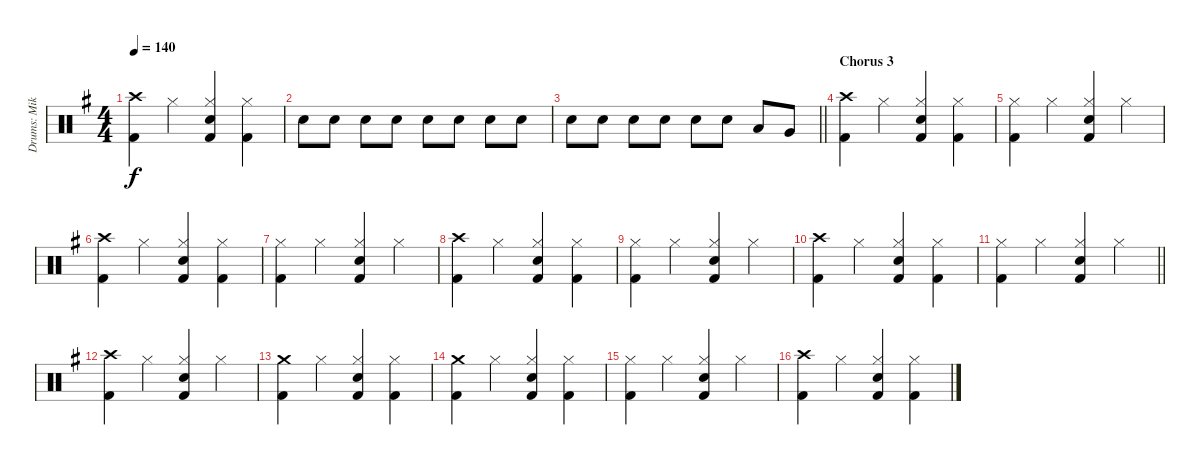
\track ("Drums: Mike Terrana" "Drums: Mik") {instrument percussion}
\staff {score}
\articulation defaults
\ts (4 4)
\tempo 140
\clef neutral
\ks eminor
("Crash high (hit)" "Kick (hit) 2").4{dy f} "Hi-Hat (closed)".4 ("Hi-Hat (closed)" "Electric Snare (hit)" "Kick (hit) 2").4 ("Hi-Hat (closed)" "Kick (hit) 2").4 |
"Electric Snare (hit)".8 "Electric Snare (hit)".8 "Electric Snare (hit)".8 "Electric Snare (hit)".8 "Electric Snare (hit)".8 "Electric Snare (hit)".8 "Electric Snare (hit)".8 "Electric Snare (hit)".8 |
\barLineRight lightlight "Electric Snare (hit)".8 "Electric Snare (hit)".8 "Electric Snare (hit)".8 "Electric Snare (hit)".8 "Electric Snare (hit)".8 "Electric Snare (hit)".8 "Low Tom (hit)".8 "Very Low Tom (hit)".8
|
\section ("" "Chorus 3")
("Crash high (hit)" "Kick (hit) 2").4 "Hi-Hat (closed)".4 ("Hi-Hat (closed)" "Electric Snare (hit)" "Kick (hit) 2").4 ("Hi-Hat (closed)" "Kick (hit) 2").4 |
("Hi-Hat (closed)" "Kick (hit) 2").4 "Hi-Hat (closed)".4 ("Hi-Hat (closed)" "Electric Snare (hit)" "Kick (hit) 2").4 "Hi-Hat (closed)".4 |
("Crash high (hit)" "Kick (hit) 2").4 "Hi-Hat (closed)".4 ("Hi-Hat (closed)" "Electric Snare (hit)" "Kick (hit) 2").4 ("Hi-Hat (closed)" "Kick (hit) 2").4 |
("Hi-Hat (closed)" "Kick (hit) 2").4 "Hi-Hat (closed)".4 ("Hi-Hat (closed)" "Electric Snare (hit)" "Kick (hit) 2").4 "Hi-Hat (closed)".4 |
("Crash high (hit)" "Kick (hit) 2").4 "Hi-Hat (closed)".4 ("Hi-Hat (closed)" "Electric Snare (hit)" "Kick (hit) 2").4 ("Hi-Hat (closed)" "Kick (hit) 2").4 |
("Hi-Hat (closed)" "Kick (hit) 2").4 "Hi-Hat (closed)".4 ("Hi-Hat (closed)" "Electric Snare (hit)" "Kick (hit) 2").4 "Hi-Hat (closed)".4 |
("Crash high (hit)" "Kick (hit) 2").4 "Hi-Hat (closed)".4 ("Hi-Hat (closed)" "Electric Snare (hit)" "Kick (hit) 2").4 ("Hi-Hat (closed)" "Kick (hit) 2").4 |
\barLineRight lightlight
("Hi-Hat (closed)" "Kick (hit) 2").4 "Hi-Hat (closed)".4 ("Hi-Hat (closed)" "Electric Snare (hit)" "Kick (hit) 2").4 "Hi-Hat (closed)".4 |
("Crash high (hit)" "Kick (hit) 2").4 "Hi-Hat (closed)".4 ("Hi-Hat (closed)" "Electric Snare (hit)" "Kick (hit) 2").4 "Hi-Hat (closed)".4 |
("Crash medium (hit)" "Kick (hit) 2").4 "Hi-Hat (closed)".4 ("Hi-Hat (closed)" "Electric Snare (hit)" "Kick (hit) 2").4 ("Hi-Hat (closed)" "Kick (hit) 2").4 |
("Crash medium (hit)" "Kick (hit) 2").4 "Hi-Hat (closed)".4 ("Hi-Hat (closed)" "Electric Snare (hit)" "Kick (hit) 2").4 ("Hi-Hat (closed)" "Kick (hit) 2").4 |
("Hi-Hat (closed)" "Kick (hit) 2").4 "Hi-Hat (closed)".4 ("Hi-Hat (closed)" "Electric Snare (hit)" "Kick (hit) 2").4 "Hi-Hat (closed)".4 |
("Crash high (hit)" "Kick (hit) 2").4 "Hi-Hat (closed)".4 ("Hi-Hat (closed)" "Electric Snare (hit)" "Kick (hit) 2").4 ("Hi-Hat (closed)" "Kick (hit) 2").4
